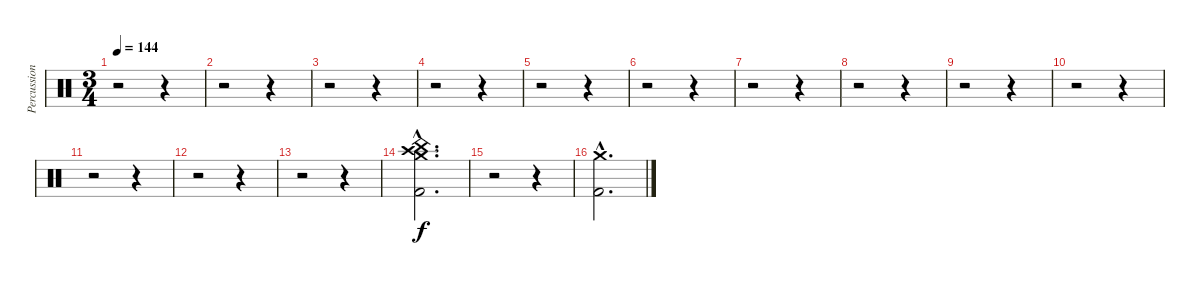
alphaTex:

\track ("Percussion" "Percussion") {instrument percussion}
\staff {score}
\articulation defaults
\ts (3 4)
\tempo 144
\clef neutral
\ks c
r.2{dy f} r.4 |
r.2 r.4 |
r.2 r.4 |
r.2 r.4 |
r.2 r.4 |
r.2 r.4 |
r.2 r.4 |
r.2 r.4 |
r.2 r.4 |
r.2 r.4 |
r.2 r.4 |
r.2 r.4 |
r.2 r.4 |
\section ("" "")
("Crash medium (hit)"{hac} "Crash high (hit)"{hac} "China (hit)"{hac} "Kick (hit) 2"{hac}).2{d} |
r.2 r.4 |
("Crash medium (hit)"{hac} "Kick (hit) 2"{hac}).2{d}
